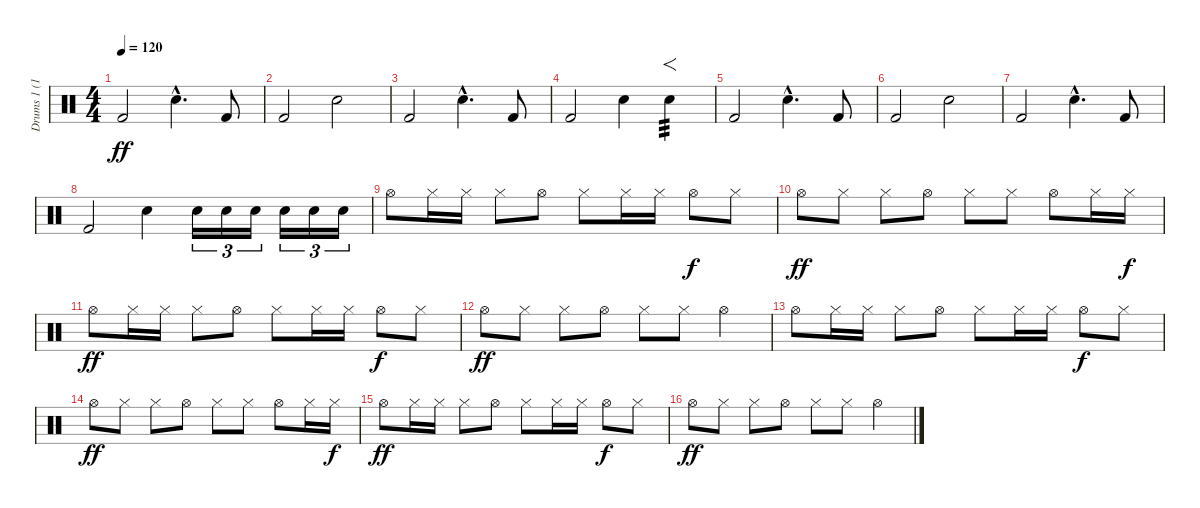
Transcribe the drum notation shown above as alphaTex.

\track ("Drums 1 (16)" "Drums 1 (1") {instrument percussion}
\staff {score}
\articulation defaults
\ts (4 4)
\tempo 120
\clef neutral
\ks c "Kick (hit) 2".2{dy ff} "Snare (hit) 2"{hac}.4{d} "Kick (hit) 2".8
|
"Kick (hit) 2".2 "Snare (hit) 2".2 |
"Kick (hit) 2".2 "Snare (hit) 2"{hac}.4{d} "Kick (hit) 2".8 |
"Kick (hit) 2".2 "Snare (hit) 2".4 "Snare (hit) 2".4{f tp 3} |
"Kick (hit) 2".2 "Snare (hit) 2"{hac}.4{d} "Kick (hit) 2".8 |
"Kick (hit) 2".2 "Snare (hit) 2".2 |
"Kick (hit) 2".2 "Snare (hit) 2"{hac}.4{d} "Kick (hit) 2".8 |
"Kick (hit) 2".2 "Snare (hit) 2".4 "Snare (hit) 2".16{tu (3 2)} "Snare (hit) 2".16{tu (3 2)} "Snare (hit) 2".16{tu (3 2)} "Snare (hit) 2".16{tu (3 2)} "Snare (hit) 2".16{tu (3 2)} "Snare (hit) 2".16{tu (3 2)} |
"Hi-Hat (open)".8 "Hi-Hat (closed)".16 "Hi-Hat (closed)".16 "Hi-Hat (closed)".8 "Hi-Hat (open)".8 "Hi-Hat (closed)".8 "Hi-Hat (closed)".16 "Hi-Hat (closed)".16 "Hi-Hat (open)".8{dy f} "Hi-Hat (closed)".8 |
"Hi-Hat (open)".8{dy ff} "Hi-Hat (closed)".8 "Hi-Hat (closed)".8 "Hi-Hat (open)".8 "Hi-Hat (closed)".8 "Hi-Hat (closed)".8 "Hi-Hat (open)".8 "Hi-Hat (closed)".16 "Hi-Hat (closed)".16{dy f} |
"Hi-Hat (open)".8{dy ff} "Hi-Hat (closed)".16 "Hi-Hat (closed)".16 "Hi-Hat (closed)".8 "Hi-Hat (open)".8 "Hi-Hat (closed)".8 "Hi-Hat (closed)".16 "Hi-Hat (closed)".16 "Hi-Hat (open)".8{dy f} "Hi-Hat (closed)".8 |
"Hi-Hat (open)".8{dy ff} "Hi-Hat (closed)".8 "Hi-Hat (closed)".8 "Hi-Hat (open)".8 "Hi-Hat (closed)".8 "Hi-Hat (closed)".8 "Hi-Hat (open)".4 |
"Hi-Hat (open)".8 "Hi-Hat (closed)".16 "Hi-Hat (closed)".16 "Hi-Hat (closed)".8 "Hi-Hat (open)".8 "Hi-Hat (closed)".8 "Hi-Hat (closed)".16 "Hi-Hat (closed)".16 "Hi-Hat (open)".8{dy f} "Hi-Hat (closed)".8 |
"Hi-Hat (open)".8{dy ff} "Hi-Hat (closed)".8 "Hi-Hat (closed)".8 "Hi-Hat (open)".8 "Hi-Hat (closed)".8 "Hi-Hat (closed)".8 "Hi-Hat (open)".8 "Hi-Hat (closed)".16 "Hi-Hat (closed)".16{dy f} |
"Hi-Hat (open)".8{dy ff} "Hi-Hat (closed)".16 "Hi-Hat (closed)".16 "Hi-Hat (closed)".8 "Hi-Hat (open)".8 "Hi-Hat (closed)".8 "Hi-Hat (closed)".16 "Hi-Hat (closed)".16 "Hi-Hat (open)".8{dy f} "Hi-Hat (closed)".8 |
"Hi-Hat (open)".8{dy ff} "Hi-Hat (closed)".8 "Hi-Hat (closed)".8 "Hi-Hat (open)".8 "Hi-Hat (closed)".8 "Hi-Hat (closed)".8 "Hi-Hat (open)".4
